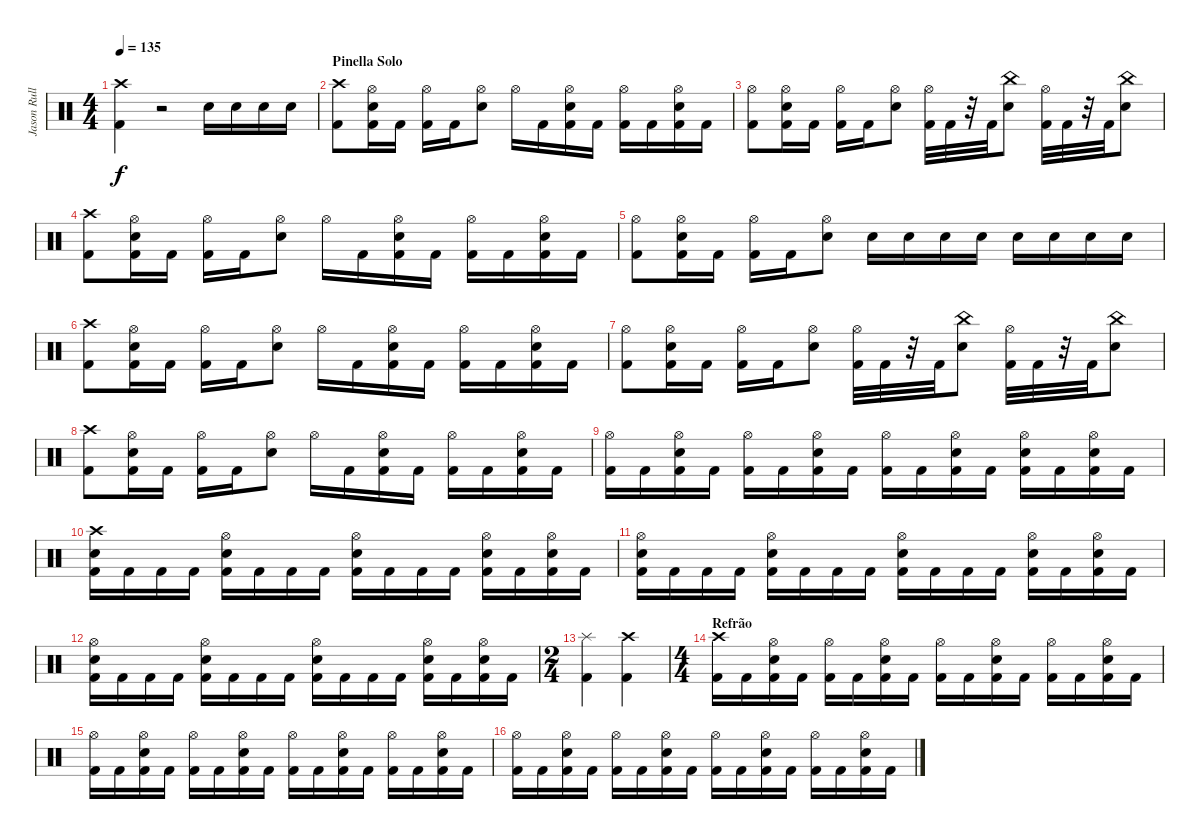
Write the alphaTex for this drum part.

\track ("Jason Rullo" "Jason Rull") {instrument percussion}
\staff {score}
\articulation defaults
\ts (4 4)
\tempo 135
\clef neutral
\ks c
("Crash high (hit)" "Kick (hit) 2").4{dy f} r.2 "Electric Snare (hit)".16 "Electric Snare (hit)".16 "Electric Snare (hit)".16 "Electric Snare (hit)".16 |
\section ("" "Pinella Solo")
("Crash high (hit)" "Kick (hit) 2").8 ("Hi-Hat (open)" "Electric Snare (hit)" "Kick (hit) 2").16 "Kick (hit) 2".16 ("Hi-Hat (open)" "Kick (hit) 2").16 "Kick (hit) 2".16 ("Hi-Hat (open)" "Electric Snare (hit)").8 "Hi-Hat (open)".16 "Kick (hit) 2".16 ("Hi-Hat (open)" "Electric Snare (hit)" "Kick (hit) 2").16 "Kick (hit) 2".16 ("Hi-Hat (open)" "Kick (hit) 2").16 "Kick (hit) 2".16 ("Hi-Hat (open)" "Electric Snare (hit)" "Kick (hit) 2").16 "Kick (hit) 2".16 |
("Hi-Hat (open)" "Kick (hit) 2").8 ("Hi-Hat (open)" "Electric Snare (hit)" "Kick (hit) 2").16 "Kick (hit) 2".16 ("Hi-Hat (open)" "Kick (hit) 2").16 "Kick (hit) 2".16 ("Hi-Hat (open)" "Electric Snare (hit)").8 ("Hi-Hat (open)" "Kick (hit) 2").32 "Kick (hit) 2".32 r.32 "Kick (hit) 2".32 ("China (hit)" "Electric Snare (hit)").8 ("Hi-Hat (open)" "Kick (hit) 2").32 "Kick (hit) 2".32 r.32 "Kick (hit) 2".32 ("China (hit)" "Electric Snare (hit)").8 |
("Crash high (hit)" "Kick (hit) 2").8 ("Hi-Hat (open)" "Electric Snare (hit)" "Kick (hit) 2").16 "Kick (hit) 2".16 ("Hi-Hat (open)" "Kick (hit) 2").16 "Kick (hit) 2".16 ("Hi-Hat (open)" "Electric Snare (hit)").8 "Hi-Hat (open)".16 "Kick (hit) 2".16 ("Hi-Hat (open)" "Electric Snare (hit)" "Kick (hit) 2").16 "Kick (hit) 2".16 ("Hi-Hat (open)" "Kick (hit) 2").16 "Kick (hit) 2".16 ("Hi-Hat (open)" "Electric Snare (hit)" "Kick (hit) 2").16 "Kick (hit) 2".16 |
("Hi-Hat (open)" "Kick (hit) 2").8 ("Hi-Hat (open)" "Electric Snare (hit)" "Kick (hit) 2").16 "Kick (hit) 2".16 ("Hi-Hat (open)" "Kick (hit) 2").16 "Kick (hit) 2".16 ("Hi-Hat (open)" "Electric Snare (hit)").8 "Electric Snare (hit)".16 "Electric Snare (hit)".16 "Electric Snare (hit)".16 "Electric Snare (hit)".16 "Electric Snare (hit)".16 "Electric Snare (hit)".16 "Electric Snare (hit)".16 "Electric Snare (hit)".16 |
("Crash high (hit)" "Kick (hit) 2").8 ("Hi-Hat (open)" "Electric Snare (hit)" "Kick (hit) 2").16 "Kick (hit) 2".16 ("Hi-Hat (open)" "Kick (hit) 2").16 "Kick (hit) 2".16 ("Hi-Hat (open)" "Electric Snare (hit)").8 "Hi-Hat (open)".16 "Kick (hit) 2".16 ("Hi-Hat (open)" "Electric Snare (hit)" "Kick (hit) 2").16 "Kick (hit) 2".16 ("Hi-Hat (open)" "Kick (hit) 2").16 "Kick (hit) 2".16 ("Hi-Hat (open)" "Electric Snare (hit)" "Kick (hit) 2").16 "Kick (hit) 2".16 |
("Hi-Hat (open)" "Kick (hit) 2").8 ("Hi-Hat (open)" "Electric Snare (hit)" "Kick (hit) 2").16 "Kick (hit) 2".16 ("Hi-Hat (open)" "Kick (hit) 2").16 "Kick (hit) 2".16 ("Hi-Hat (open)" "Electric Snare (hit)").8 ("Hi-Hat (open)" "Kick (hit) 2").32 "Kick (hit) 2".32 r.32 "Kick (hit) 2".32 ("China (hit)" "Electric Snare (hit)").8 ("Hi-Hat (open)" "Kick (hit) 2").32 "Kick (hit) 2".32 r.32 "Kick (hit) 2".32 ("China (hit)" "Electric Snare (hit)").8 |
("Crash high (hit)" "Kick (hit) 2").8 ("Hi-Hat (open)" "Electric Snare (hit)" "Kick (hit) 2").16 "Kick (hit) 2".16 ("Hi-Hat (open)" "Kick (hit) 2").16 "Kick (hit) 2".16 ("Hi-Hat (open)" "Electric Snare (hit)").8 "Hi-Hat (open)".16 "Kick (hit) 2".16 ("Hi-Hat (open)" "Electric Snare (hit)" "Kick (hit) 2").16 "Kick (hit) 2".16 ("Hi-Hat (open)" "Kick (hit) 2").16 "Kick (hit) 2".16 ("Hi-Hat (open)" "Electric Snare (hit)" "Kick (hit) 2").16 "Kick (hit) 2".16 |
("Hi-Hat (open)" "Kick (hit) 2").16 "Kick (hit) 2".16 ("Hi-Hat (open)" "Electric Snare (hit)" "Kick (hit) 2").16 "Kick (hit) 2".16 ("Hi-Hat (open)" "Kick (hit) 2").16 "Kick (hit) 2".16 ("Hi-Hat (open)" "Electric Snare (hit)" "Kick (hit) 2").16 "Kick (hit) 2".16 ("Hi-Hat (open)" "Kick (hit) 2").16 "Kick (hit) 2".16 ("Hi-Hat (open)" "Electric Snare (hit)" "Kick (hit) 2").16 "Kick (hit) 2".16 ("Hi-Hat (open)" "Electric Snare (hit)" "Kick (hit) 2").16 "Kick (hit) 2".16 ("Hi-Hat (open)" "Electric Snare (hit)" "Kick (hit) 2").16 "Kick (hit) 2".16 |
("Crash high (hit)" "Electric Snare (hit)" "Kick (hit) 2").16 "Kick (hit) 2".16 "Kick (hit) 2".16 "Kick (hit) 2".16 ("Hi-Hat (open)" "Electric Snare (hit)" "Kick (hit) 2").16 "Kick (hit) 2".16 "Kick (hit) 2".16 "Kick (hit) 2".16 ("Hi-Hat (open)" "Electric Snare (hit)" "Kick (hit) 2").16 "Kick (hit) 2".16 "Kick (hit) 2".16 "Kick (hit) 2".16 ("Hi-Hat (open)" "Electric Snare (hit)" "Kick (hit) 2").16 "Kick (hit) 2".16 ("Hi-Hat (open)" "Electric Snare (hit)" "Kick (hit) 2").16 "Kick (hit) 2".16 |
("Hi-Hat (open)" "Electric Snare (hit)" "Kick (hit) 2").16 "Kick (hit) 2".16 "Kick (hit) 2".16 "Kick (hit) 2".16 ("Hi-Hat (open)" "Electric Snare (hit)" "Kick (hit) 2").16 "Kick (hit) 2".16 "Kick (hit) 2".16 "Kick (hit) 2".16 ("Hi-Hat (open)" "Electric Snare (hit)" "Kick (hit) 2").16 "Kick (hit) 2".16 "Kick (hit) 2".16 "Kick (hit) 2".16 ("Hi-Hat (open)" "Electric Snare (hit)" "Kick (hit) 2").16 "Kick (hit) 2".16 ("Hi-Hat (open)" "Electric Snare (hit)" "Kick (hit) 2").16 "Kick (hit) 2".16 |
("Hi-Hat (open)" "Electric Snare (hit)" "Kick (hit) 2").16 "Kick (hit) 2".16 "Kick (hit) 2".16 "Kick (hit) 2".16 ("Hi-Hat (open)" "Electric Snare (hit)" "Kick (hit) 2").16 "Kick (hit) 2".16 "Kick (hit) 2".16 "Kick (hit) 2".16 ("Hi-Hat (open)" "Electric Snare (hit)" "Kick (hit) 2").16 "Kick (hit) 2".16 "Kick (hit) 2".16 "Kick (hit) 2".16 ("Hi-Hat (open)" "Electric Snare (hit)" "Kick (hit) 2").16 "Kick (hit) 2".16 ("Hi-Hat (open)" "Electric Snare (hit)" "Kick (hit) 2").16 "Kick (hit) 2".16 |
\ts (2 4)
("Splash (hit)" "Kick (hit) 2").4 ("Crash high (hit)" "Kick (hit) 2").4 |
\ts (4 4)
\section ("" "Refrão")
("Kick (hit) 2" "Crash high (hit)").16 "Kick (hit) 2".16 ("Hi-Hat (open)" "Electric Snare (hit)" "Kick (hit) 2").16 "Kick (hit) 2".16 ("Hi-Hat (open)" "Kick (hit) 2").16 "Kick (hit) 2".16 ("Hi-Hat (open)" "Electric Snare (hit)" "Kick (hit) 2").16 "Kick (hit) 2".16 ("Hi-Hat (open)" "Kick (hit) 2").16 "Kick (hit) 2".16 ("Hi-Hat (open)" "Electric Snare (hit)" "Kick (hit) 2").16 "Kick (hit) 2".16 ("Hi-Hat (open)" "Kick (hit) 2").16 "Kick (hit) 2".16 ("Hi-Hat (open)" "Electric Snare (hit)" "Kick (hit) 2").16 "Kick (hit) 2".16 |
("Kick (hit) 2" "Hi-Hat (open)").16 "Kick (hit) 2".16 ("Kick (hit) 2" "Electric Snare (hit)" "Hi-Hat (open)").16 "Kick (hit) 2".16 ("Kick (hit) 2" "Hi-Hat (open)").16 "Kick (hit) 2".16 ("Kick (hit) 2" "Electric Snare (hit)" "Hi-Hat (open)").16 "Kick (hit) 2".16 ("Kick (hit) 2" "Hi-Hat (open)").16 "Kick (hit) 2".16 ("Kick (hit) 2" "Electric Snare (hit)" "Hi-Hat (open)").16 "Kick (hit) 2".16 ("Kick (hit) 2" "Hi-Hat (open)").16 "Kick (hit) 2".16 ("Kick (hit) 2" "Electric Snare (hit)" "Hi-Hat (open)").16 "Kick (hit) 2".16 |
("Kick (hit) 2" "Hi-Hat (open)").16 "Kick (hit) 2".16 ("Kick (hit) 2" "Electric Snare (hit)" "Hi-Hat (open)").16 "Kick (hit) 2".16 ("Kick (hit) 2" "Hi-Hat (open)").16 "Kick (hit) 2".16 ("Kick (hit) 2" "Electric Snare (hit)" "Hi-Hat (open)").16 "Kick (hit) 2".16 ("Kick (hit) 2" "Hi-Hat (open)").16 "Kick (hit) 2".16 ("Kick (hit) 2" "Electric Snare (hit)" "Hi-Hat (open)").16 "Kick (hit) 2".16 ("Kick (hit) 2" "Hi-Hat (open)").16 "Kick (hit) 2".16 ("Kick (hit) 2" "Electric Snare (hit)" "Hi-Hat (open)").16 "Kick (hit) 2".16
